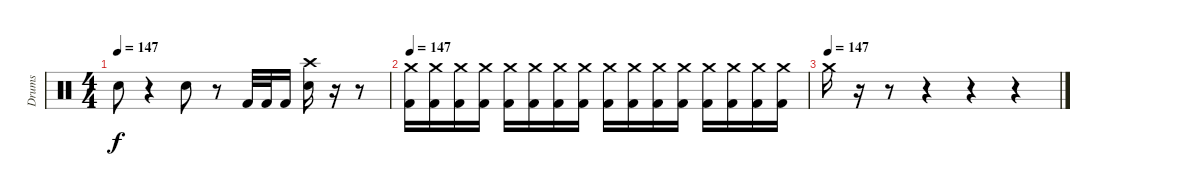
\track ("Drums" "Drums") {instrument percussion}
\staff {score}
\articulation defaults
\ts (4 4)
\tempo 147
\clef neutral
\ks c "Electric Snare (hit)".8{dy f}
r.4 "Electric Snare (hit)".8 r.8 "Kick (hit) 2".32 "Kick (hit) 2".32 "Kick (hit) 2".16 ("Crash high (hit)" "Electric Snare (hit)").16 r.16 r.8 |
\tempo 147
("Crash medium (hit)" "Kick (hit) 2").16 ("Crash medium (hit)" "Kick (hit) 2").16 ("Crash medium (hit)" "Kick (hit) 2").16 ("Crash medium (hit)" "Kick (hit) 2").16 ("Crash medium (hit)" "Kick (hit) 2").16 ("Crash medium (hit)" "Kick (hit) 2").16 ("Crash medium (hit)" "Kick (hit) 2").16 ("Crash medium (hit)" "Kick (hit) 2").16 ("Crash medium (hit)" "Kick (hit) 2").16 ("Crash medium (hit)" "Kick (hit) 2").16 ("Crash medium (hit)" "Kick (hit) 2").16 ("Crash medium (hit)" "Kick (hit) 2").16 ("Crash medium (hit)" "Kick (hit) 2").16 ("Crash medium (hit)" "Kick (hit) 2").16 ("Crash medium (hit)" "Kick (hit) 2").16 ("Crash medium (hit)" "Kick (hit) 2").16 |
\tempo (147)
"Crash medium (hit)".16 r.16 r.8 r.4 r.4 r.4
